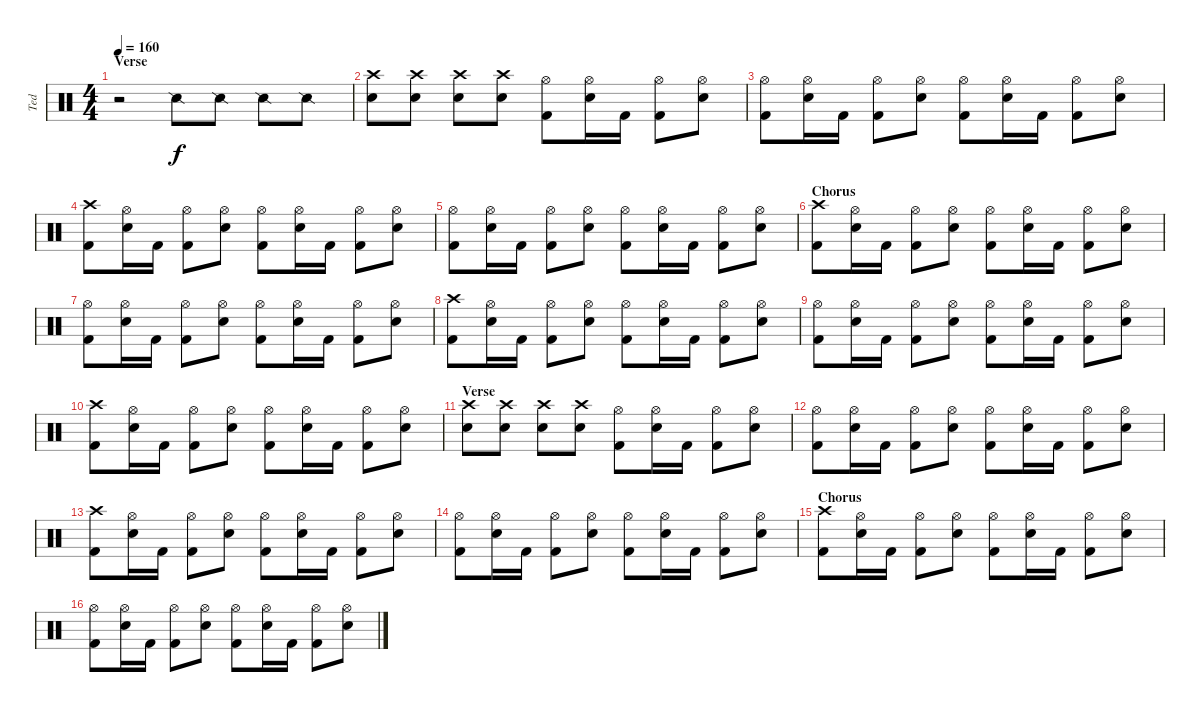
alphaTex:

\track ("Ted" "Ted") {instrument percussion}
\staff {score}
\articulation defaults
\ts (4 4)
\section ("" "Verse")
\tempo 160
\clef neutral
\ks c
r.2{dy f} "Snare (side stick) 2".8 "Snare (side stick) 2".8 "Snare (side stick) 2".8 "Snare (side stick) 2".8 |
("Crash high (hit)" "Electric Snare (hit)").8 ("Crash high (hit)" "Electric Snare (hit)").8 ("Crash high (hit)" "Electric Snare (hit)").8 ("Crash high (hit)" "Electric Snare (hit)").8 ("Hi-Hat (open)" "Kick (hit) 2").8 ("Hi-Hat (open)" "Electric Snare (hit)").16 "Kick (hit) 2".16 ("Hi-Hat (open)" "Kick (hit) 2").8 ("Hi-Hat (open)" "Electric Snare (hit)").8 |
("Hi-Hat (open)" "Kick (hit) 2").8 ("Hi-Hat (open)" "Electric Snare (hit)").16 "Kick (hit) 2".16 ("Hi-Hat (open)" "Kick (hit) 2").8 ("Hi-Hat (open)" "Electric Snare (hit)").8 ("Hi-Hat (open)" "Kick (hit) 2").8 ("Hi-Hat (open)" "Electric Snare (hit)").16 "Kick (hit) 2".16 ("Hi-Hat (open)" "Kick (hit) 2").8 ("Hi-Hat (open)" "Electric Snare (hit)").8 |
("Crash high (hit)" "Kick (hit) 2").8 ("Hi-Hat (open)" "Electric Snare (hit)").16 "Kick (hit) 2".16 ("Hi-Hat (open)" "Kick (hit) 2").8 ("Hi-Hat (open)" "Electric Snare (hit)").8 ("Hi-Hat (open)" "Kick (hit) 2").8 ("Hi-Hat (open)" "Electric Snare (hit)").16 "Kick (hit) 2".16 ("Hi-Hat (open)" "Kick (hit) 2").8 ("Hi-Hat (open)" "Electric Snare (hit)").8 |
("Hi-Hat (open)" "Kick (hit) 2").8 ("Hi-Hat (open)" "Electric Snare (hit)").16 "Kick (hit) 2".16 ("Hi-Hat (open)" "Kick (hit) 2").8 ("Hi-Hat (open)" "Electric Snare (hit)").8 ("Hi-Hat (open)" "Kick (hit) 2").8 ("Hi-Hat (open)" "Electric Snare (hit)").16 "Kick (hit) 2".16 ("Hi-Hat (open)" "Kick (hit) 2").8 ("Hi-Hat (open)" "Electric Snare (hit)").8 |
\section ("" "Chorus")
("Crash high (hit)" "Kick (hit) 2").8 ("Hi-Hat (open)" "Electric Snare (hit)").16 "Kick (hit) 2".16 ("Hi-Hat (open)" "Kick (hit) 2").8 ("Hi-Hat (open)" "Electric Snare (hit)").8 ("Hi-Hat (open)" "Kick (hit) 2").8 ("Hi-Hat (open)" "Electric Snare (hit)").16 "Kick (hit) 2".16 ("Hi-Hat (open)" "Kick (hit) 2").8 ("Hi-Hat (open)" "Electric Snare (hit)").8 |
("Hi-Hat (open)" "Kick (hit) 2").8 ("Hi-Hat (open)" "Electric Snare (hit)").16 "Kick (hit) 2".16 ("Hi-Hat (open)" "Kick (hit) 2").8 ("Hi-Hat (open)" "Electric Snare (hit)").8 ("Hi-Hat (open)" "Kick (hit) 2").8 ("Hi-Hat (open)" "Electric Snare (hit)").16 "Kick (hit) 2".16 ("Hi-Hat (open)" "Kick (hit) 2").8 ("Hi-Hat (open)" "Electric Snare (hit)").8 |
("Crash high (hit)" "Kick (hit) 2").8 ("Hi-Hat (open)" "Electric Snare (hit)").16 "Kick (hit) 2".16 ("Hi-Hat (open)" "Kick (hit) 2").8 ("Hi-Hat (open)" "Electric Snare (hit)").8 ("Hi-Hat (open)" "Kick (hit) 2").8 ("Hi-Hat (open)" "Electric Snare (hit)").16 "Kick (hit) 2".16 ("Hi-Hat (open)" "Kick (hit) 2").8 ("Hi-Hat (open)" "Electric Snare (hit)").8 |
("Hi-Hat (open)" "Kick (hit) 2").8 ("Hi-Hat (open)" "Electric Snare (hit)").16 "Kick (hit) 2".16 ("Hi-Hat (open)" "Kick (hit) 2").8 ("Hi-Hat (open)" "Electric Snare (hit)").8 ("Hi-Hat (open)" "Kick (hit) 2").8 ("Hi-Hat (open)" "Electric Snare (hit)").16 "Kick (hit) 2".16 ("Hi-Hat (open)" "Kick (hit) 2").8 ("Hi-Hat (open)" "Electric Snare (hit)").8 |
("Crash high (hit)" "Kick (hit) 2").8 ("Hi-Hat (open)" "Electric Snare (hit)").16 "Kick (hit) 2".16 ("Hi-Hat (open)" "Kick (hit) 2").8 ("Hi-Hat (open)" "Electric Snare (hit)").8 ("Hi-Hat (open)" "Kick (hit) 2").8 ("Hi-Hat (open)" "Electric Snare (hit)").16 "Kick (hit) 2".16 ("Hi-Hat (open)" "Kick (hit) 2").8 ("Hi-Hat (open)" "Electric Snare (hit)").8 |
\section ("" "Verse")
("Crash high (hit)" "Electric Snare (hit)").8 ("Crash high (hit)" "Electric Snare (hit)").8 ("Crash high (hit)" "Electric Snare (hit)").8 ("Crash high (hit)" "Electric Snare (hit)").8 ("Hi-Hat (open)" "Kick (hit) 2").8 ("Hi-Hat (open)" "Electric Snare (hit)").16 "Kick (hit) 2".16 ("Hi-Hat (open)" "Kick (hit) 2").8 ("Hi-Hat (open)" "Electric Snare (hit)").8 |
("Hi-Hat (open)" "Kick (hit) 2").8 ("Hi-Hat (open)" "Electric Snare (hit)").16 "Kick (hit) 2".16 ("Hi-Hat (open)" "Kick (hit) 2").8 ("Hi-Hat (open)" "Electric Snare (hit)").8 ("Hi-Hat (open)" "Kick (hit) 2").8 ("Hi-Hat (open)" "Electric Snare (hit)").16 "Kick (hit) 2".16 ("Hi-Hat (open)" "Kick (hit) 2").8 ("Hi-Hat (open)" "Electric Snare (hit)").8 |
("Crash high (hit)" "Kick (hit) 2").8 ("Hi-Hat (open)" "Electric Snare (hit)").16 "Kick (hit) 2".16 ("Hi-Hat (open)" "Kick (hit) 2").8 ("Hi-Hat (open)" "Electric Snare (hit)").8 ("Hi-Hat (open)" "Kick (hit) 2").8 ("Hi-Hat (open)" "Electric Snare (hit)").16 "Kick (hit) 2".16 ("Hi-Hat (open)" "Kick (hit) 2").8 ("Hi-Hat (open)" "Electric Snare (hit)").8 |
("Hi-Hat (open)" "Kick (hit) 2").8 ("Hi-Hat (open)" "Electric Snare (hit)").16 "Kick (hit) 2".16 ("Hi-Hat (open)" "Kick (hit) 2").8 ("Hi-Hat (open)" "Electric Snare (hit)").8 ("Hi-Hat (open)" "Kick (hit) 2").8 ("Hi-Hat (open)" "Electric Snare (hit)").16 "Kick (hit) 2".16 ("Hi-Hat (open)" "Kick (hit) 2").8 ("Hi-Hat (open)" "Electric Snare (hit)").8 |
\section ("" "Chorus")
("Crash high (hit)" "Kick (hit) 2").8 ("Hi-Hat (open)" "Electric Snare (hit)").16 "Kick (hit) 2".16 ("Hi-Hat (open)" "Kick (hit) 2").8 ("Hi-Hat (open)" "Electric Snare (hit)").8 ("Hi-Hat (open)" "Kick (hit) 2").8 ("Hi-Hat (open)" "Electric Snare (hit)").16 "Kick (hit) 2".16 ("Hi-Hat (open)" "Kick (hit) 2").8 ("Hi-Hat (open)" "Electric Snare (hit)").8 |
("Hi-Hat (open)" "Kick (hit) 2").8 ("Hi-Hat (open)" "Electric Snare (hit)").16 "Kick (hit) 2".16 ("Hi-Hat (open)" "Kick (hit) 2").8 ("Hi-Hat (open)" "Electric Snare (hit)").8 ("Hi-Hat (open)" "Kick (hit) 2").8 ("Hi-Hat (open)" "Electric Snare (hit)").16 "Kick (hit) 2".16 ("Hi-Hat (open)" "Kick (hit) 2").8 ("Hi-Hat (open)" "Electric Snare (hit)").8
